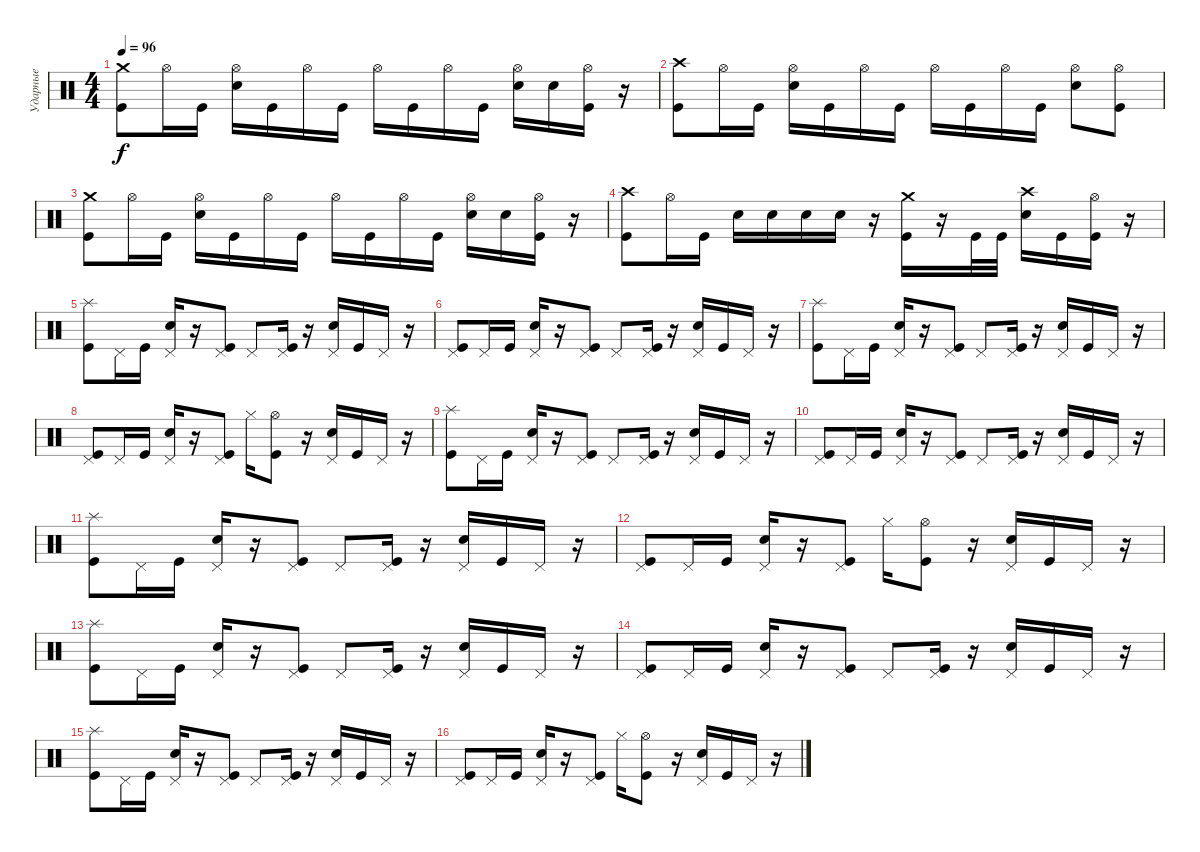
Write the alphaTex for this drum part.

\track ("Ударные" "Ударные") {instrument percussion}
\staff {score}
\articulation defaults
\ts (4 4)
\tempo 96
\clef neutral
\ks c
("Crash medium (hit)" "Kick (hit)").8{dy f} "Hi-Hat (open)".16 "Kick (hit)".16 ("Hi-Hat (open)" "Electric Snare (hit)").16 "Kick (hit)".16 "Hi-Hat (open)".16 "Kick (hit)".16 "Hi-Hat (open)".16 "Kick (hit)".16 "Hi-Hat (open)".16 "Kick (hit)".16 ("Hi-Hat (open)" "Electric Snare (hit)").16 "Electric Snare (hit)".16 ("Hi-Hat (open)" "Kick (hit)").16 r.16 |
("Crash high (hit)" "Kick (hit)").8 "Hi-Hat (open)".16 "Kick (hit)".16 ("Hi-Hat (open)" "Electric Snare (hit)").16 "Kick (hit)".16 "Hi-Hat (open)".16 "Kick (hit)".16 "Hi-Hat (open)".16 "Kick (hit)".16 "Hi-Hat (open)".16 "Kick (hit)".16 ("Hi-Hat (open)" "Electric Snare (hit)").8 ("Hi-Hat (open)" "Kick (hit)").8 |
("Crash medium (hit)" "Kick (hit)").8 "Hi-Hat (open)".16 "Kick (hit)".16 ("Hi-Hat (open)" "Electric Snare (hit)").16 "Kick (hit)".16 "Hi-Hat (open)".16 "Kick (hit)".16 "Hi-Hat (open)".16 "Kick (hit)".16 "Hi-Hat (open)".16 "Kick (hit)".16 ("Hi-Hat (open)" "Electric Snare (hit)").16 "Electric Snare (hit)".16 ("Hi-Hat (open)" "Kick (hit)").16 r.16 |
("Crash high (hit)" "Kick (hit)").8 "Hi-Hat (open)".16 "Kick (hit)".16 "Electric Snare (hit)".16 "Electric Snare (hit)".16 "Electric Snare (hit)".16 "Electric Snare (hit)".16 r.16 ("Crash medium (hit)" "Kick (hit)").16 r.16 "Kick (hit)".32 "Kick (hit)".32 ("Crash high (hit)" "Electric Snare (hit)").16 "Kick (hit)".16 ("Hi-Hat (open)" "Kick (hit)").16 r.16 |
("Splash (hit)" "Kick (hit)").8 "Pedal Hi-Hat (hit)".16 "Kick (hit)".16 ("Pedal Hi-Hat (hit)" "Electric Snare (hit)").16 r.16 ("Pedal Hi-Hat (hit)" "Kick (hit)").8 "Pedal Hi-Hat (hit)".8 ("Pedal Hi-Hat (hit)" "Kick (hit)").16 r.16 ("Pedal Hi-Hat (hit)" "Electric Snare (hit)").16 "Kick (hit)".16 "Pedal Hi-Hat (hit)".16 r.16 |
("Pedal Hi-Hat (hit)" "Kick (hit)").8 "Pedal Hi-Hat (hit)".16 "Kick (hit)".16 ("Pedal Hi-Hat (hit)" "Electric Snare (hit)").16 r.16 ("Pedal Hi-Hat (hit)" "Kick (hit)").8 "Pedal Hi-Hat (hit)".8 ("Pedal Hi-Hat (hit)" "Kick (hit)").16 r.16 ("Pedal Hi-Hat (hit)" "Electric Snare (hit)").16 "Kick (hit)".16 "Pedal Hi-Hat (hit)".16 r.16 |
("Splash (hit)" "Kick (hit)").8 "Pedal Hi-Hat (hit)".16 "Kick (hit)".16 ("Pedal Hi-Hat (hit)" "Electric Snare (hit)").16 r.16 ("Pedal Hi-Hat (hit)" "Kick (hit)").8 "Pedal Hi-Hat (hit)".8 ("Pedal Hi-Hat (hit)" "Kick (hit)").16 r.16 ("Pedal Hi-Hat (hit)" "Electric Snare (hit)").16 "Kick (hit)".16 "Pedal Hi-Hat (hit)".16 r.16 |
("Pedal Hi-Hat (hit)" "Kick (hit)").8 "Pedal Hi-Hat (hit)".16 "Kick (hit)".16 ("Pedal Hi-Hat (hit)" "Electric Snare (hit)").16 r.16 ("Pedal Hi-Hat (hit)" "Kick (hit)").8 "Hi-Hat (closed)".16 ("Hi-Hat (open)" "Kick (hit)").8 r.16 ("Pedal Hi-Hat (hit)" "Electric Snare (hit)").16 "Kick (hit)".16 "Pedal Hi-Hat (hit)".16 r.16 |
("Splash (hit)" "Kick (hit)").8 "Pedal Hi-Hat (hit)".16 "Kick (hit)".16 ("Pedal Hi-Hat (hit)" "Electric Snare (hit)").16 r.16 ("Pedal Hi-Hat (hit)" "Kick (hit)").8 "Pedal Hi-Hat (hit)".8 ("Pedal Hi-Hat (hit)" "Kick (hit)").16 r.16 ("Pedal Hi-Hat (hit)" "Electric Snare (hit)").16 "Kick (hit)".16 "Pedal Hi-Hat (hit)".16 r.16 |
("Pedal Hi-Hat (hit)" "Kick (hit)").8 "Pedal Hi-Hat (hit)".16 "Kick (hit)".16 ("Pedal Hi-Hat (hit)" "Electric Snare (hit)").16 r.16 ("Pedal Hi-Hat (hit)" "Kick (hit)").8 "Pedal Hi-Hat (hit)".8 ("Pedal Hi-Hat (hit)" "Kick (hit)").16 r.16 ("Pedal Hi-Hat (hit)" "Electric Snare (hit)").16 "Kick (hit)".16 "Pedal Hi-Hat (hit)".16 r.16 |
("Splash (hit)" "Kick (hit)").8 "Pedal Hi-Hat (hit)".16 "Kick (hit)".16 ("Pedal Hi-Hat (hit)" "Electric Snare (hit)").16 r.16 ("Pedal Hi-Hat (hit)" "Kick (hit)").8 "Pedal Hi-Hat (hit)".8 ("Pedal Hi-Hat (hit)" "Kick (hit)").16 r.16 ("Pedal Hi-Hat (hit)" "Electric Snare (hit)").16 "Kick (hit)".16 "Pedal Hi-Hat (hit)".16 r.16 |
("Pedal Hi-Hat (hit)" "Kick (hit)").8 "Pedal Hi-Hat (hit)".16 "Kick (hit)".16 ("Pedal Hi-Hat (hit)" "Electric Snare (hit)").16 r.16 ("Pedal Hi-Hat (hit)" "Kick (hit)").8 "Hi-Hat (closed)".16 ("Hi-Hat (open)" "Kick (hit)").8 r.16 ("Pedal Hi-Hat (hit)" "Electric Snare (hit)").16 "Kick (hit)".16 "Pedal Hi-Hat (hit)".16 r.16 |
("Splash (hit)" "Kick (hit)").8 "Pedal Hi-Hat (hit)".16 "Kick (hit)".16 ("Pedal Hi-Hat (hit)" "Electric Snare (hit)").16 r.16 ("Pedal Hi-Hat (hit)" "Kick (hit)").8 "Pedal Hi-Hat (hit)".8 ("Pedal Hi-Hat (hit)" "Kick (hit)").16 r.16 ("Pedal Hi-Hat (hit)" "Electric Snare (hit)").16 "Kick (hit)".16 "Pedal Hi-Hat (hit)".16 r.16 |
("Pedal Hi-Hat (hit)" "Kick (hit)").8 "Pedal Hi-Hat (hit)".16 "Kick (hit)".16 ("Pedal Hi-Hat (hit)" "Electric Snare (hit)").16 r.16 ("Pedal Hi-Hat (hit)" "Kick (hit)").8 "Pedal Hi-Hat (hit)".8 ("Pedal Hi-Hat (hit)" "Kick (hit)").16 r.16 ("Pedal Hi-Hat (hit)" "Electric Snare (hit)").16 "Kick (hit)".16 "Pedal Hi-Hat (hit)".16 r.16 |
("Splash (hit)" "Kick (hit)").8 "Pedal Hi-Hat (hit)".16 "Kick (hit)".16 ("Pedal Hi-Hat (hit)" "Electric Snare (hit)").16 r.16 ("Pedal Hi-Hat (hit)" "Kick (hit)").8 "Pedal Hi-Hat (hit)".8 ("Pedal Hi-Hat (hit)" "Kick (hit)").16 r.16 ("Pedal Hi-Hat (hit)" "Electric Snare (hit)").16 "Kick (hit)".16 "Pedal Hi-Hat (hit)".16 r.16 |
("Pedal Hi-Hat (hit)" "Kick (hit)").8 "Pedal Hi-Hat (hit)".16 "Kick (hit)".16 ("Pedal Hi-Hat (hit)" "Electric Snare (hit)").16 r.16 ("Pedal Hi-Hat (hit)" "Kick (hit)").8 "Hi-Hat (closed)".16 ("Hi-Hat (open)" "Kick (hit)").8 r.16 ("Pedal Hi-Hat (hit)" "Electric Snare (hit)").16 "Kick (hit)".16 "Pedal Hi-Hat (hit)".16 r.16
